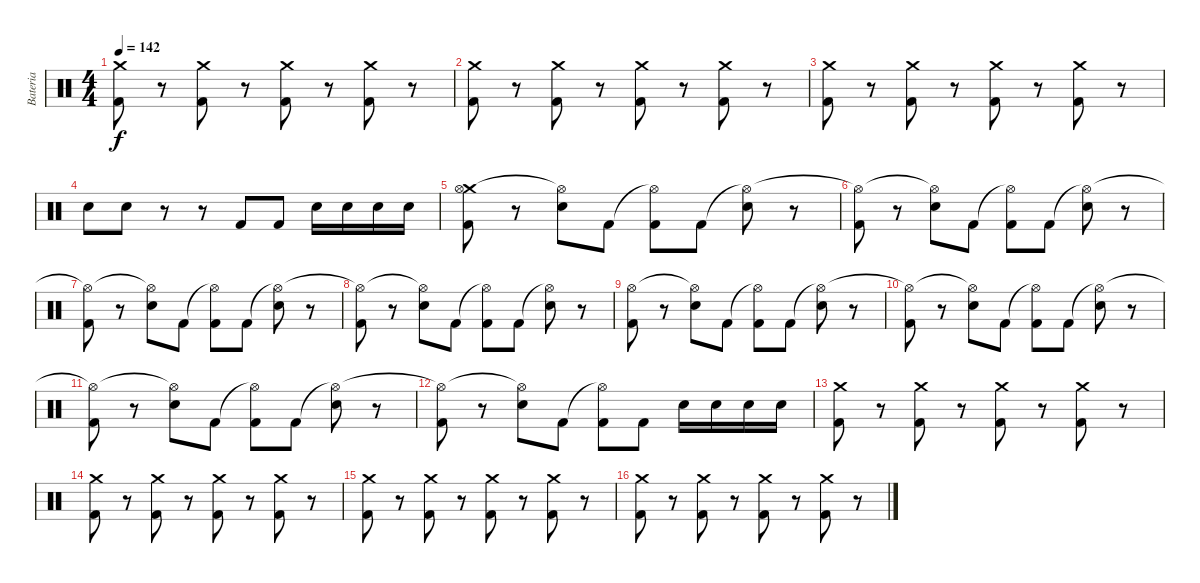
\track ("Bateria" "Bateria") {instrument percussion}
\staff {score}
\articulation defaults
\ts (4 4)
\tempo 142
\clef neutral
\ks c
("Crash medium (hit)" "Kick (hit) 2").8{dy f} r.8 ("Crash medium (hit)" "Kick (hit) 2").8 r.8 ("Crash medium (hit)" "Kick (hit) 2").8 r.8 ("Crash medium (hit)" "Kick (hit) 2").8 r.8 |
("Crash medium (hit)" "Kick (hit) 2").8 r.8 ("Crash medium (hit)" "Kick (hit) 2").8 r.8 ("Crash medium (hit)" "Kick (hit) 2").8 r.8 ("Crash medium (hit)" "Kick (hit) 2").8 r.8 |
("Crash medium (hit)" "Kick (hit) 2").8 r.8 ("Crash medium (hit)" "Kick (hit) 2").8 r.8 ("Crash medium (hit)" "Kick (hit) 2").8 r.8 ("Crash medium (hit)" "Kick (hit) 2").8 r.8 |
"Electric Snare (hit)".8 "Electric Snare (hit)".8 r.8 r.8 "Kick (hit) 2".8 "Kick (hit) 2".8 "Electric Snare (hit)".16 "Electric Snare (hit)".16 "Electric Snare (hit)".16 "Electric Snare (hit)".16 |
("Crash medium (hit)" "Hi-Hat (open)" "Kick (hit) 2").8 r.8 ("Hi-Hat (open)"{t} "Electric Snare (hit)").8 "Kick (hit) 2".8 ("Hi-Hat (open)"{t} "Kick (hit) 2").8 "Kick (hit) 2".8 ("Hi-Hat (open)"{t} "Electric Snare (hit)").8 r.8 |
("Hi-Hat (open)"{t} "Kick (hit) 2").8 r.8 ("Hi-Hat (open)"{t} "Electric Snare (hit)").8 "Kick (hit) 2".8 ("Hi-Hat (open)"{t} "Kick (hit) 2").8 "Kick (hit) 2".8 ("Hi-Hat (open)"{t} "Electric Snare (hit)").8 r.8 |
("Hi-Hat (open)"{t} "Kick (hit) 2").8 r.8 ("Hi-Hat (open)"{t} "Electric Snare (hit)").8 "Kick (hit) 2".8 ("Hi-Hat (open)"{t} "Kick (hit) 2").8 "Kick (hit) 2".8 ("Hi-Hat (open)"{t} "Electric Snare (hit)").8 r.8 |
("Hi-Hat (open)"{t} "Kick (hit) 2").8 r.8 ("Hi-Hat (open)"{t} "Electric Snare (hit)").8 "Kick (hit) 2".8 ("Hi-Hat (open)"{t} "Kick (hit) 2").8 "Kick (hit) 2".8 ("Hi-Hat (open)"{t} "Electric Snare (hit)").8 r.8 |
("Hi-Hat (open)" "Kick (hit) 2").8 r.8 ("Hi-Hat (open)"{t} "Electric Snare (hit)").8 "Kick (hit) 2".8 ("Hi-Hat (open)"{t} "Kick (hit) 2").8 "Kick (hit) 2".8 ("Hi-Hat (open)"{t} "Electric Snare (hit)").8 r.8 |
("Hi-Hat (open)"{t} "Kick (hit) 2").8 r.8 ("Hi-Hat (open)"{t} "Electric Snare (hit)").8 "Kick (hit) 2".8 ("Hi-Hat (open)"{t} "Kick (hit) 2").8 "Kick (hit) 2".8 ("Hi-Hat (open)"{t} "Electric Snare (hit)").8 r.8 |
("Hi-Hat (open)"{t} "Kick (hit) 2").8 r.8 ("Hi-Hat (open)"{t} "Electric Snare (hit)").8 "Kick (hit) 2".8 ("Hi-Hat (open)"{t} "Kick (hit) 2").8 "Kick (hit) 2".8 ("Hi-Hat (open)"{t} "Electric Snare (hit)").8 r.8 |
("Hi-Hat (open)"{t} "Kick (hit) 2").8 r.8 ("Hi-Hat (open)"{t} "Electric Snare (hit)").8 "Kick (hit) 2".8 ("Hi-Hat (open)"{t} "Kick (hit) 2").8 "Kick (hit) 2".8 "Electric Snare (hit)".16 "Electric Snare (hit)".16 "Electric Snare (hit)".16 "Electric Snare (hit)".16 |
("Crash medium (hit)" "Kick (hit) 2").8 r.8 ("Crash medium (hit)" "Kick (hit) 2").8 r.8 ("Crash medium (hit)" "Kick (hit) 2").8 r.8 ("Crash medium (hit)" "Kick (hit) 2").8 r.8 |
("Crash medium (hit)" "Kick (hit) 2").8 r.8 ("Crash medium (hit)" "Kick (hit) 2").8 r.8 ("Crash medium (hit)" "Kick (hit) 2").8 r.8 ("Crash medium (hit)" "Kick (hit) 2").8 r.8 |
("Crash medium (hit)" "Kick (hit) 2").8 r.8 ("Crash medium (hit)" "Kick (hit) 2").8 r.8 ("Crash medium (hit)" "Kick (hit) 2").8 r.8 ("Crash medium (hit)" "Kick (hit) 2").8 r.8 |
("Crash medium (hit)" "Kick (hit) 2").8 r.8 ("Crash medium (hit)" "Kick (hit) 2").8 r.8 ("Crash medium (hit)" "Kick (hit) 2").8 r.8 ("Crash medium (hit)" "Kick (hit) 2").8 r.8
